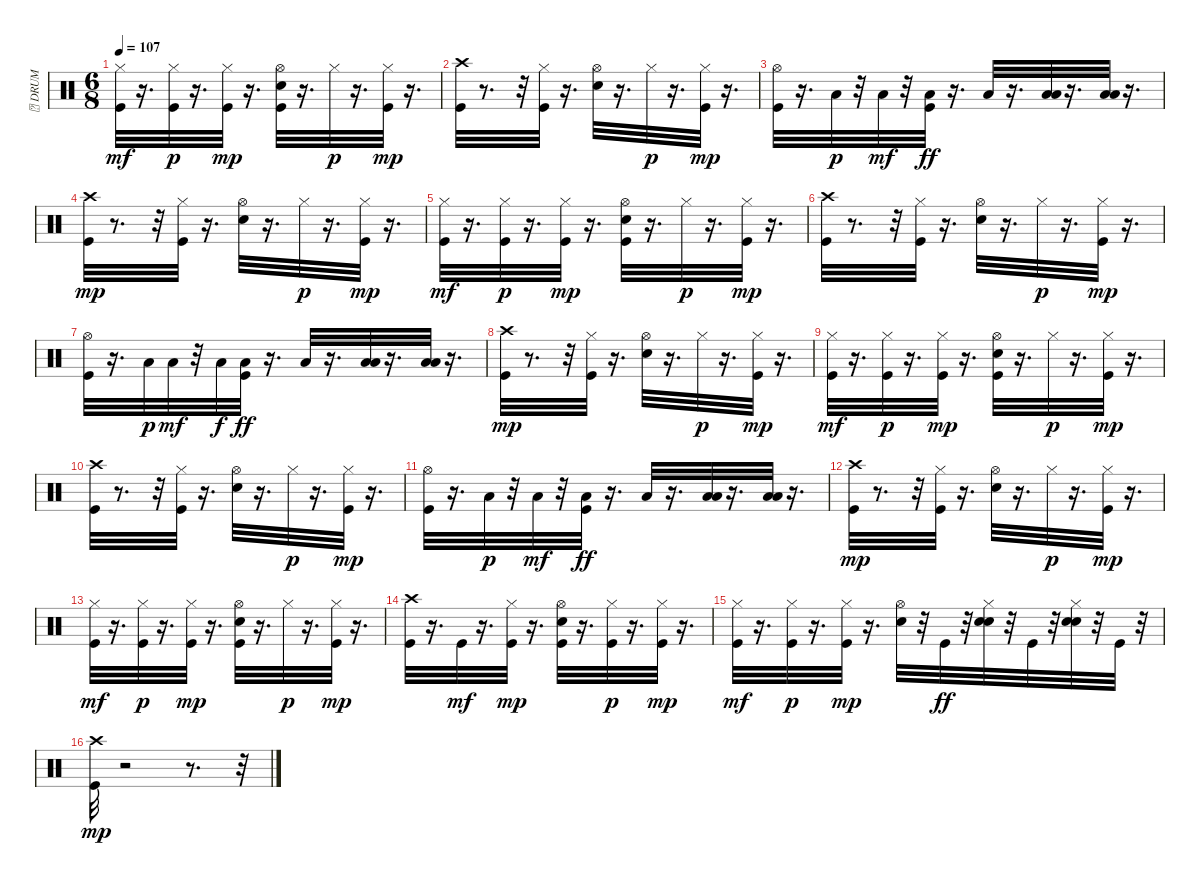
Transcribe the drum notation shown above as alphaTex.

\track ("\t DRUM" "\t DRUM") {instrument percussion}
\staff {score}
\articulation defaults
\ts (6 8)
\tempo 107
\clef neutral
\ks c
("Kick (hit)" "Hi-Hat (closed)").32{dy mf} r.16{d} ("Kick (hit)" "Hi-Hat (closed)").32{dy p} r.16{d} ("Kick (hit)" "Hi-Hat (closed)").32{dy mp} r.16{d} ("Kick (hit)" "Electric Snare (hit)" "Hi-Hat (open)").32 r.16{d} "Hi-Hat (closed)".32{dy p} r.16{d} ("Kick (hit)" "Hi-Hat (closed)").32{dy mp} r.16{d} |
("Kick (hit)" "Crash high (hit)").32 r.8{d} r.32 ("Kick (hit)" "Hi-Hat (closed)").32 r.16{d} ("Electric Snare (hit)" "Hi-Hat (open)").32 r.16{d} "Hi-Hat (closed)".32{dy p} r.16{d} ("Kick (hit)" "Hi-Hat (closed)").32{dy mp} r.16{d} |
("Kick (hit)" "Hi-Hat (open)").32 r.16{d} "Low Tom (hit)".32{dy p} r.32 "Low Tom (hit)".32{dy mf} r.32 ("Kick (hit)" "Low Tom (hit)").32{dy ff} r.16{d} "Low Tom (hit)".32 r.16{d} ("Low Floor Tom (hit)" "Low Tom (hit)").32 r.16{d} ("Low Floor Tom (hit)" "Low Tom (hit)").32 r.16{d} |
("Kick (hit)" "Crash high (hit)").32{dy mp} r.8{d} r.32 ("Kick (hit)" "Hi-Hat (closed)").32 r.16{d} ("Electric Snare (hit)" "Hi-Hat (open)").32 r.16{d} "Hi-Hat (closed)".32{dy p} r.16{d} ("Kick (hit)" "Hi-Hat (closed)").32{dy mp} r.16{d} |
("Kick (hit)" "Hi-Hat (closed)").32{dy mf} r.16{d} ("Kick (hit)" "Hi-Hat (closed)").32{dy p} r.16{d} ("Kick (hit)" "Hi-Hat (closed)").32{dy mp} r.16{d} ("Kick (hit)" "Electric Snare (hit)" "Hi-Hat (open)").32 r.16{d} "Hi-Hat (closed)".32{dy p} r.16{d} ("Kick (hit)" "Hi-Hat (closed)").32{dy mp} r.16{d} |
("Kick (hit)" "Crash high (hit)").32 r.8{d} r.32 ("Kick (hit)" "Hi-Hat (closed)").32 r.16{d} ("Electric Snare (hit)" "Hi-Hat (open)").32 r.16{d} "Hi-Hat (closed)".32{dy p} r.16{d} ("Kick (hit)" "Hi-Hat (closed)").32{dy mp} r.16{d} |
("Kick (hit)" "Hi-Hat (open)").32 r.16{d} "Low Tom (hit)".32{dy p} "Low Tom (hit)".32{dy mf} r.32 "Low Tom (hit)".32{dy f} ("Kick (hit)" "Low Tom (hit)").32{dy ff} r.16{d} "Low Tom (hit)".32 r.16{d} ("Low Floor Tom (hit)" "Low Tom (hit)").32 r.16{d} ("Low Floor Tom (hit)" "Low Tom (hit)").32 r.16{d} |
("Kick (hit)" "Crash high (hit)").32{dy mp} r.8{d} r.32 ("Kick (hit)" "Hi-Hat (closed)").32 r.16{d} ("Electric Snare (hit)" "Hi-Hat (open)").32 r.16{d} "Hi-Hat (closed)".32{dy p} r.16{d} ("Kick (hit)" "Hi-Hat (closed)").32{dy mp} r.16{d} |
("Kick (hit)" "Hi-Hat (closed)").32{dy mf} r.16{d} ("Kick (hit)" "Hi-Hat (closed)").32{dy p} r.16{d} ("Kick (hit)" "Hi-Hat (closed)").32{dy mp} r.16{d} ("Kick (hit)" "Electric Snare (hit)" "Hi-Hat (open)").32 r.16{d} "Hi-Hat (closed)".32{dy p} r.16{d} ("Kick (hit)" "Hi-Hat (closed)").32{dy mp} r.16{d} |
("Kick (hit)" "Crash high (hit)").32 r.8{d} r.32 ("Kick (hit)" "Hi-Hat (closed)").32 r.16{d} ("Electric Snare (hit)" "Hi-Hat (open)").32 r.16{d} "Hi-Hat (closed)".32{dy p} r.16{d} ("Kick (hit)" "Hi-Hat (closed)").32{dy mp} r.16{d} |
("Kick (hit)" "Hi-Hat (open)").32 r.16{d} "Low Tom (hit)".32{dy p} r.32 "Low Tom (hit)".32{dy mf} r.32 ("Kick (hit)" "Low Tom (hit)").32{dy ff} r.16{d} "Low Tom (hit)".32 r.16{d} ("Low Floor Tom (hit)" "Low Tom (hit)").32 r.16{d} ("Low Floor Tom (hit)" "Low Tom (hit)").32 r.16{d} |
("Kick (hit)" "Crash high (hit)").32{dy mp} r.8{d} r.32 ("Kick (hit)" "Hi-Hat (closed)").32 r.16{d} ("Electric Snare (hit)" "Hi-Hat (open)").32 r.16{d} "Hi-Hat (closed)".32{dy p} r.16{d} ("Kick (hit)" "Hi-Hat (closed)").32{dy mp} r.16{d} |
("Kick (hit)" "Hi-Hat (closed)").32{dy mf} r.16{d} ("Kick (hit)" "Hi-Hat (closed)").32{dy p} r.16{d} ("Kick (hit)" "Hi-Hat (closed)").32{dy mp} r.16{d} ("Kick (hit)" "Electric Snare (hit)" "Hi-Hat (open)").32 r.16{d} "Hi-Hat (closed)".32{dy p} r.16{d} ("Kick (hit)" "Hi-Hat (closed)").32{dy mp} r.16{d} |
("Kick (hit)" "Crash high (hit)").32 r.16{d} "Kick (hit)".32{dy mf} r.16{d} ("Kick (hit)" "Hi-Hat (closed)").32{dy mp} r.16{d} ("Kick (hit)" "Electric Snare (hit)" "Hi-Hat (open)").32 r.16{d} ("Kick (hit)" "Hi-Hat (closed)").32{dy p} r.16{d} ("Kick (hit)" "Hi-Hat (closed)").32{dy mp} r.16{d} |
("Kick (hit)" "Hi-Hat (closed)").32{dy mf} r.16{d} ("Kick (hit)" "Hi-Hat (closed)").32{dy p} r.16{d} ("Kick (hit)" "Hi-Hat (closed)").32{dy mp} r.16{d} ("Electric Snare (hit)" "Hi-Hat (open)").32 r.32 "Kick (hit)".32{dy ff} r.32 ("Electric Snare (hit)" "Hi-Hat (closed)" "Electric Snare (hit)").32 r.32 "Kick (hit)".32 r.32 ("Electric Snare (hit)" "Hi-Hat (closed)" "Electric Snare (hit)").32 r.32 "Kick (hit)".32 r.32 |
("Kick (hit)" "Crash high (hit)").32{dy mp} r.2 r.8{d} r.32
